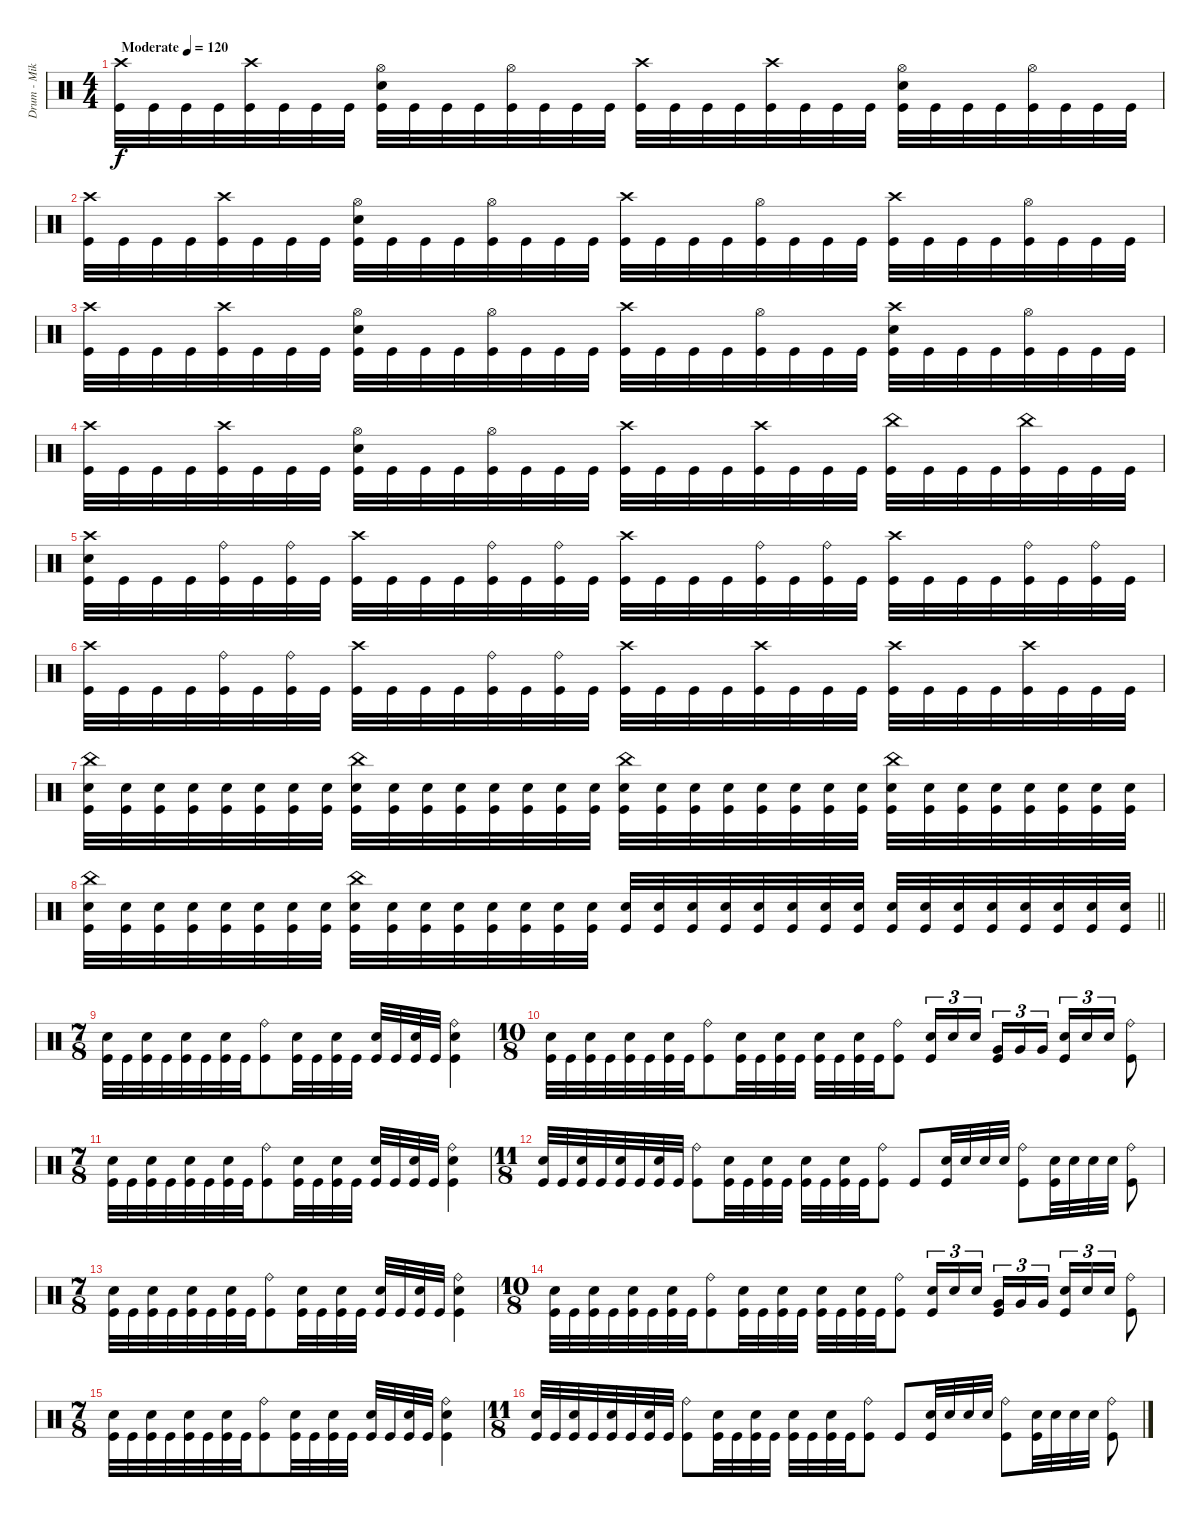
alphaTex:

\track ("Drum - Mike Collins" "Drum - Mik") {instrument percussion}
\staff {score}
\articulation defaults
\ts (4 4)
\tempo (120 "Moderate")
\clef neutral
\ks c
("Crash high (hit)" "Kick (hit)").32{dy f} "Kick (hit)".32 "Kick (hit)".32 "Kick (hit)".32 ("Crash high (hit)" "Kick (hit)").32 "Kick (hit)".32 "Kick (hit)".32 "Kick (hit)".32 ("Hi-Hat (open)" "Electric Snare (hit)" "Kick (hit)").32 "Kick (hit)".32 "Kick (hit)".32 "Kick (hit)".32 ("Hi-Hat (open)" "Kick (hit)").32 "Kick (hit)".32 "Kick (hit)".32 "Kick (hit)".32 ("Crash high (hit)" "Kick (hit)").32 "Kick (hit)".32 "Kick (hit)".32 "Kick (hit)".32 ("Crash high (hit)" "Kick (hit)").32 "Kick (hit)".32 "Kick (hit)".32 "Kick (hit)".32 ("Hi-Hat (open)" "Electric Snare (hit)" "Kick (hit)").32 "Kick (hit)".32 "Kick (hit)".32 "Kick (hit)".32 ("Hi-Hat (open)" "Kick (hit)").32 "Kick (hit)".32 "Kick (hit)".32 "Kick (hit)".32 |
("Crash high (hit)" "Kick (hit)").32 "Kick (hit)".32 "Kick (hit)".32 "Kick (hit)".32 ("Crash high (hit)" "Kick (hit)").32 "Kick (hit)".32 "Kick (hit)".32 "Kick (hit)".32 ("Hi-Hat (open)" "Electric Snare (hit)" "Kick (hit)").32 "Kick (hit)".32 "Kick (hit)".32 "Kick (hit)".32 ("Hi-Hat (open)" "Kick (hit)").32 "Kick (hit)".32 "Kick (hit)".32 "Kick (hit)".32 ("Crash high (hit)" "Kick (hit)").32 "Kick (hit)".32 "Kick (hit)".32 "Kick (hit)".32 ("Hi-Hat (open)" "Kick (hit)").32 "Kick (hit)".32 "Kick (hit)".32 "Kick (hit)".32 ("Crash high (hit)" "Kick (hit)").32 "Kick (hit)".32 "Kick (hit)".32 "Kick (hit)".32 ("Hi-Hat (open)" "Kick (hit)").32 "Kick (hit)".32 "Kick (hit)".32 "Kick (hit)".32 |
("Crash high (hit)" "Kick (hit)").32 "Kick (hit)".32 "Kick (hit)".32 "Kick (hit)".32 ("Crash high (hit)" "Kick (hit)").32 "Kick (hit)".32 "Kick (hit)".32 "Kick (hit)".32 ("Hi-Hat (open)" "Electric Snare (hit)" "Kick (hit)").32 "Kick (hit)".32 "Kick (hit)".32 "Kick (hit)".32 ("Hi-Hat (open)" "Kick (hit)").32 "Kick (hit)".32 "Kick (hit)".32 "Kick (hit)".32 ("Crash high (hit)" "Kick (hit)").32 "Kick (hit)".32 "Kick (hit)".32 "Kick (hit)".32 ("Hi-Hat (open)" "Kick (hit)").32 "Kick (hit)".32 "Kick (hit)".32 "Kick (hit)".32 ("Crash high (hit)" "Electric Snare (hit)" "Kick (hit)").32 "Kick (hit)".32 "Kick (hit)".32 "Kick (hit)".32 ("Hi-Hat (open)" "Kick (hit)").32 "Kick (hit)".32 "Kick (hit)".32 "Kick (hit)".32 |
("Crash high (hit)" "Kick (hit)").32 "Kick (hit)".32 "Kick (hit)".32 "Kick (hit)".32 ("Crash high (hit)" "Kick (hit)").32 "Kick (hit)".32 "Kick (hit)".32 "Kick (hit)".32 ("Hi-Hat (open)" "Electric Snare (hit)" "Kick (hit)").32 "Kick (hit)".32 "Kick (hit)".32 "Kick (hit)".32 ("Hi-Hat (open)" "Kick (hit)").32 "Kick (hit)".32 "Kick (hit)".32 "Kick (hit)".32 ("Crash high (hit)" "Kick (hit)").32 "Kick (hit)".32 "Kick (hit)".32 "Kick (hit)".32 ("Crash high (hit)" "Kick (hit)").32 "Kick (hit)".32 "Kick (hit)".32 "Kick (hit)".32 ("China (hit)" "Kick (hit)").32 "Kick (hit)".32 "Kick (hit)".32 "Kick (hit)".32 ("China (hit)" "Kick (hit)").32 "Kick (hit)".32 "Kick (hit)".32 "Kick (hit)".32 |
("Crash high (hit)" "Electric Snare (hit)" "Kick (hit)").32 "Kick (hit)".32 "Kick (hit)".32 "Kick (hit)".32 ("Ride (bell)" "Kick (hit)").32 "Kick (hit)".32 ("Ride (bell)" "Kick (hit)").32 "Kick (hit)".32 ("Crash high (hit)" "Kick (hit)").32 "Kick (hit)".32 "Kick (hit)".32 "Kick (hit)".32 ("Ride (bell)" "Kick (hit)").32 "Kick (hit)".32 ("Ride (bell)" "Kick (hit)").32 "Kick (hit)".32 ("Crash high (hit)" "Kick (hit)").32 "Kick (hit)".32 "Kick (hit)".32 "Kick (hit)".32 ("Ride (bell)" "Kick (hit)").32 "Kick (hit)".32 ("Ride (bell)" "Kick (hit)").32 "Kick (hit)".32 ("Crash high (hit)" "Kick (hit)").32 "Kick (hit)".32 "Kick (hit)".32 "Kick (hit)".32 ("Ride (bell)" "Kick (hit)").32 "Kick (hit)".32 ("Ride (bell)" "Kick (hit)").32 "Kick (hit)".32 |
("Crash high (hit)" "Kick (hit)").32 "Kick (hit)".32 "Kick (hit)".32 "Kick (hit)".32 ("Ride (bell)" "Kick (hit)").32 "Kick (hit)".32 ("Ride (bell)" "Kick (hit)").32 "Kick (hit)".32 ("Crash high (hit)" "Kick (hit)").32 "Kick (hit)".32 "Kick (hit)".32 "Kick (hit)".32 ("Ride (bell)" "Kick (hit)").32 "Kick (hit)".32 ("Ride (bell)" "Kick (hit)").32 "Kick (hit)".32 ("Crash high (hit)" "Kick (hit)").32 "Kick (hit)".32 "Kick (hit)".32 "Kick (hit)".32 ("Crash high (hit)" "Kick (hit)").32 "Kick (hit)".32 "Kick (hit)".32 "Kick (hit)".32 ("Crash high (hit)" "Kick (hit)").32 "Kick (hit)".32 "Kick (hit)".32 "Kick (hit)".32 ("Crash high (hit)" "Kick (hit)").32 "Kick (hit)".32 "Kick (hit)".32 "Kick (hit)".32 |
("China (hit)" "Electric Snare (hit)" "Kick (hit)").32 ("Electric Snare (hit)" "Kick (hit)").32 ("Electric Snare (hit)" "Kick (hit)").32 ("Electric Snare (hit)" "Kick (hit)").32 ("Electric Snare (hit)" "Kick (hit)").32 ("Electric Snare (hit)" "Kick (hit)").32 ("Electric Snare (hit)" "Kick (hit)").32 ("Electric Snare (hit)" "Kick (hit)").32 ("China (hit)" "Electric Snare (hit)" "Kick (hit)").32 ("Electric Snare (hit)" "Kick (hit)").32 ("Electric Snare (hit)" "Kick (hit)").32 ("Electric Snare (hit)" "Kick (hit)").32 ("Electric Snare (hit)" "Kick (hit)").32 ("Electric Snare (hit)" "Kick (hit)").32 ("Electric Snare (hit)" "Kick (hit)").32 ("Electric Snare (hit)" "Kick (hit)").32 ("China (hit)" "Electric Snare (hit)" "Kick (hit)").32 ("Electric Snare (hit)" "Kick (hit)").32 ("Electric Snare (hit)" "Kick (hit)").32 ("Electric Snare (hit)" "Kick (hit)").32 ("Electric Snare (hit)" "Kick (hit)").32 ("Electric Snare (hit)" "Kick (hit)").32 ("Electric Snare (hit)" "Kick (hit)").32 ("Electric Snare (hit)" "Kick (hit)").32 ("China (hit)" "Electric Snare (hit)" "Kick (hit)").32 ("Electric Snare (hit)" "Kick (hit)").32 ("Electric Snare (hit)" "Kick (hit)").32 ("Electric Snare (hit)" "Kick (hit)").32 ("Electric Snare (hit)" "Kick (hit)").32 ("Electric Snare (hit)" "Kick (hit)").32 ("Electric Snare (hit)" "Kick (hit)").32 ("Electric Snare (hit)" "Kick (hit)").32 |
\barLineRight lightlight
("China (hit)" "Electric Snare (hit)" "Kick (hit)").32 ("Electric Snare (hit)" "Kick (hit)").32 ("Electric Snare (hit)" "Kick (hit)").32 ("Electric Snare (hit)" "Kick (hit)").32 ("Electric Snare (hit)" "Kick (hit)").32 ("Electric Snare (hit)" "Kick (hit)").32 ("Electric Snare (hit)" "Kick (hit)").32 ("Electric Snare (hit)" "Kick (hit)").32 ("China (hit)" "Electric Snare (hit)" "Kick (hit)").32 ("Electric Snare (hit)" "Kick (hit)").32 ("Electric Snare (hit)" "Kick (hit)").32 ("Electric Snare (hit)" "Kick (hit)").32 ("Electric Snare (hit)" "Kick (hit)").32 ("Electric Snare (hit)" "Kick (hit)").32 ("Electric Snare (hit)" "Kick (hit)").32 ("Electric Snare (hit)" "Kick (hit)").32 ("Electric Snare (hit)" "Kick (hit)").32 ("Electric Snare (hit)" "Kick (hit)").32 ("Electric Snare (hit)" "Kick (hit)").32 ("Electric Snare (hit)" "Kick (hit)").32 ("Electric Snare (hit)" "Kick (hit)").32 ("Electric Snare (hit)" "Kick (hit)").32 ("Electric Snare (hit)" "Kick (hit)").32 ("Electric Snare (hit)" "Kick (hit)").32 ("Electric Snare (hit)" "Kick (hit)").32 ("Electric Snare (hit)" "Kick (hit)").32 ("Electric Snare (hit)" "Kick (hit)").32 ("Electric Snare (hit)" "Kick (hit)").32 ("Electric Snare (hit)" "Kick (hit)").32 ("Electric Snare (hit)" "Kick (hit)").32 ("Electric Snare (hit)" "Kick (hit)").32 ("Electric Snare (hit)" "Kick (hit)").32 |
\ts (7 8)
("Electric Snare (hit)" "Kick (hit)").32 "Kick (hit)".32 ("Electric Snare (hit)" "Kick (hit)").32 "Kick (hit)".32 ("Electric Snare (hit)" "Kick (hit)").32 "Kick (hit)".32 ("Electric Snare (hit)" "Kick (hit)").32 "Kick (hit)".32 ("Ride (bell)" "Kick (hit)").8 ("Electric Snare (hit)" "Kick (hit)").32 "Kick (hit)".32 ("Electric Snare (hit)" "Kick (hit)").32 "Kick (hit)".32 ("Electric Snare (hit)" "Kick (hit)").32 "Kick (hit)".32 ("Electric Snare (hit)" "Kick (hit)").32 "Kick (hit)".32 ("Ride (bell)" "Electric Snare (hit)" "Kick (hit)").4 |
\ts (10 8)
("Electric Snare (hit)" "Kick (hit)").32 "Kick (hit)".32 ("Electric Snare (hit)" "Kick (hit)").32 "Kick (hit)".32 ("Electric Snare (hit)" "Kick (hit)").32 "Kick (hit)".32 ("Electric Snare (hit)" "Kick (hit)").32 "Kick (hit)".32 ("Ride (bell)" "Kick (hit)").8 ("Electric Snare (hit)" "Kick (hit)").32 "Kick (hit)".32 ("Electric Snare (hit)" "Kick (hit)").32 "Kick (hit)".32 ("Electric Snare (hit)" "Kick (hit)").32 "Kick (hit)".32 ("Electric Snare (hit)" "Kick (hit)").32 "Kick (hit)".32 ("Ride (bell)" "Kick (hit)").8 ("Electric Snare (hit)" "Kick (hit)").16{tu (3 2)} "Electric Snare (hit)".16{tu (3 2)} "Electric Snare (hit)".16{tu (3 2)} ("Very Low Tom (hit)" "Kick (hit)").16{tu (3 2)} "Very Low Tom (hit)".16{tu (3 2)} "Very Low Tom (hit)".16{tu (3 2)} ("Electric Snare (hit)" "Kick (hit)").16{tu (3 2)} "Electric Snare (hit)".16{tu (3 2)} "Electric Snare (hit)".16{tu (3 2)} ("Ride (bell)" "Kick (hit)").8 |
\ts (7 8)
("Electric Snare (hit)" "Kick (hit)").32 "Kick (hit)".32 ("Electric Snare (hit)" "Kick (hit)").32 "Kick (hit)".32 ("Electric Snare (hit)" "Kick (hit)").32 "Kick (hit)".32 ("Electric Snare (hit)" "Kick (hit)").32 "Kick (hit)".32 ("Ride (bell)" "Kick (hit)").8 ("Electric Snare (hit)" "Kick (hit)").32 "Kick (hit)".32 ("Electric Snare (hit)" "Kick (hit)").32 "Kick (hit)".32 ("Electric Snare (hit)" "Kick (hit)").32 "Kick (hit)".32 ("Electric Snare (hit)" "Kick (hit)").32 "Kick (hit)".32 ("Ride (bell)" "Electric Snare (hit)" "Kick (hit)").4 |
\ts (11 8)
("Electric Snare (hit)" "Kick (hit)").32 "Kick (hit)".32 ("Electric Snare (hit)" "Kick (hit)").32 "Kick (hit)".32 ("Electric Snare (hit)" "Kick (hit)").32 "Kick (hit)".32 ("Electric Snare (hit)" "Kick (hit)").32 "Kick (hit)".32 ("Ride (bell)" "Kick (hit)").8 ("Electric Snare (hit)" "Kick (hit)").32 "Kick (hit)".32 ("Electric Snare (hit)" "Kick (hit)").32 "Kick (hit)".32 ("Electric Snare (hit)" "Kick (hit)").32 "Kick (hit)".32 ("Electric Snare (hit)" "Kick (hit)").32 "Kick (hit)".32 ("Ride (bell)" "Kick (hit)").8 "Kick (hit)".8 ("Electric Snare (hit)" "Kick (hit)").32 "Electric Snare (hit)".32 "Electric Snare (hit)".32 "Electric Snare (hit)".32 ("Ride (bell)" "Kick (hit)").8 ("Electric Snare (hit)" "Kick (hit)").32 "Electric Snare (hit)".32 "Electric Snare (hit)".32 "Electric Snare (hit)".32 ("Ride (bell)" "Kick (hit)").8 |
\ts (7 8)
("Electric Snare (hit)" "Kick (hit)").32 "Kick (hit)".32 ("Electric Snare (hit)" "Kick (hit)").32 "Kick (hit)".32 ("Electric Snare (hit)" "Kick (hit)").32 "Kick (hit)".32 ("Electric Snare (hit)" "Kick (hit)").32 "Kick (hit)".32 ("Ride (bell)" "Kick (hit)").8 ("Electric Snare (hit)" "Kick (hit)").32 "Kick (hit)".32 ("Electric Snare (hit)" "Kick (hit)").32 "Kick (hit)".32 ("Electric Snare (hit)" "Kick (hit)").32 "Kick (hit)".32 ("Electric Snare (hit)" "Kick (hit)").32 "Kick (hit)".32 ("Ride (bell)" "Electric Snare (hit)" "Kick (hit)").4 |
\ts (10 8)
("Electric Snare (hit)" "Kick (hit)").32 "Kick (hit)".32 ("Electric Snare (hit)" "Kick (hit)").32 "Kick (hit)".32 ("Electric Snare (hit)" "Kick (hit)").32 "Kick (hit)".32 ("Electric Snare (hit)" "Kick (hit)").32 "Kick (hit)".32 ("Ride (bell)" "Kick (hit)").8 ("Electric Snare (hit)" "Kick (hit)").32 "Kick (hit)".32 ("Electric Snare (hit)" "Kick (hit)").32 "Kick (hit)".32 ("Electric Snare (hit)" "Kick (hit)").32 "Kick (hit)".32 ("Electric Snare (hit)" "Kick (hit)").32 "Kick (hit)".32 ("Ride (bell)" "Kick (hit)").8 ("Electric Snare (hit)" "Kick (hit)").16{tu (3 2)} "Electric Snare (hit)".16{tu (3 2)} "Electric Snare (hit)".16{tu (3 2)} ("Very Low Tom (hit)" "Kick (hit)").16{tu (3 2)} "Very Low Tom (hit)".16{tu (3 2)} "Very Low Tom (hit)".16{tu (3 2)} ("Electric Snare (hit)" "Kick (hit)").16{tu (3 2)} "Electric Snare (hit)".16{tu (3 2)} "Electric Snare (hit)".16{tu (3 2)} ("Ride (bell)" "Kick (hit)").8 |
\ts (7 8)
("Electric Snare (hit)" "Kick (hit)").32 "Kick (hit)".32 ("Electric Snare (hit)" "Kick (hit)").32 "Kick (hit)".32 ("Electric Snare (hit)" "Kick (hit)").32 "Kick (hit)".32 ("Electric Snare (hit)" "Kick (hit)").32 "Kick (hit)".32 ("Ride (bell)" "Kick (hit)").8 ("Electric Snare (hit)" "Kick (hit)").32 "Kick (hit)".32 ("Electric Snare (hit)" "Kick (hit)").32 "Kick (hit)".32 ("Electric Snare (hit)" "Kick (hit)").32 "Kick (hit)".32 ("Electric Snare (hit)" "Kick (hit)").32 "Kick (hit)".32 ("Ride (bell)" "Electric Snare (hit)" "Kick (hit)").4 |
\ts (11 8)
("Electric Snare (hit)" "Kick (hit)").32 "Kick (hit)".32 ("Electric Snare (hit)" "Kick (hit)").32 "Kick (hit)".32 ("Electric Snare (hit)" "Kick (hit)").32 "Kick (hit)".32 ("Electric Snare (hit)" "Kick (hit)").32 "Kick (hit)".32 ("Ride (bell)" "Kick (hit)").8 ("Electric Snare (hit)" "Kick (hit)").32 "Kick (hit)".32 ("Electric Snare (hit)" "Kick (hit)").32 "Kick (hit)".32 ("Electric Snare (hit)" "Kick (hit)").32 "Kick (hit)".32 ("Electric Snare (hit)" "Kick (hit)").32 "Kick (hit)".32 ("Ride (bell)" "Kick (hit)").8 "Kick (hit)".8 ("Electric Snare (hit)" "Kick (hit)").32 "Electric Snare (hit)".32 "Electric Snare (hit)".32 "Electric Snare (hit)".32 ("Ride (bell)" "Kick (hit)").8 ("Electric Snare (hit)" "Kick (hit)").32 "Electric Snare (hit)".32 "Electric Snare (hit)".32 "Electric Snare (hit)".32 ("Ride (bell)" "Kick (hit)").8
